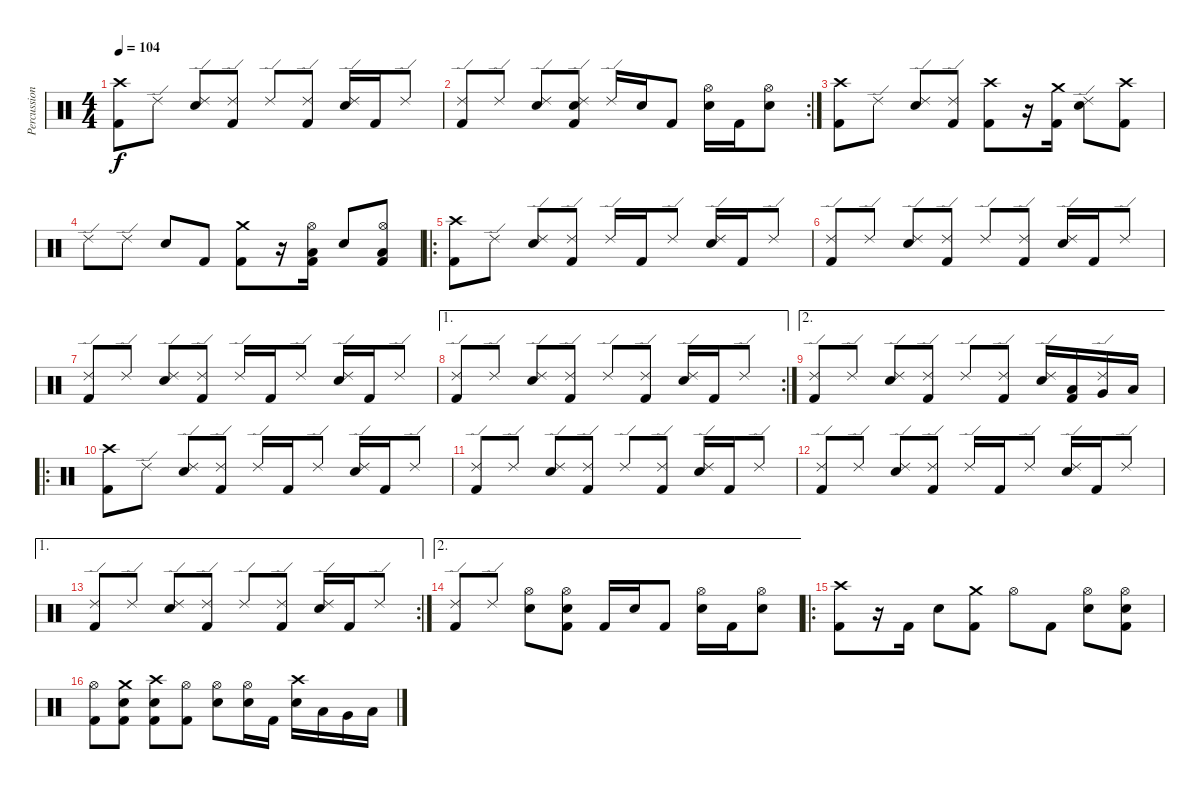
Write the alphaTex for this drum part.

\track ("Percussion" "Percussion") {instrument percussion}
\staff {score}
\articulation defaults
\ts (4 4)
\tempo 104
\clef neutral
\ks c
("Crash high (hit)" "Kick (hit) 2").8{dy f} "Ride (edge) 2".8 ("Ride (edge) 2" "Electric Snare (hit)").8 ("Ride (edge) 2" "Kick (hit) 2").8 "Ride (edge) 2".8 ("Ride (edge) 2" "Kick (hit) 2").8 ("Ride (edge) 2" "Electric Snare (hit)").16 "Kick (hit) 2".16 "Ride (edge) 2".8 |
\rc 2
("Ride (edge) 2" "Kick (hit) 2").8 "Ride (edge) 2".8 ("Ride (edge) 2" "Electric Snare (hit)").8 ("Ride (edge) 2" "Electric Snare (hit)" "Kick (hit) 2").8 "Ride (edge) 2".16 "Electric Snare (hit)".16 "Kick (hit) 2".8 ("Hi-Hat (open)" "Electric Snare (hit)").16 "Kick (hit) 2".16 ("Hi-Hat (open)" "Electric Snare (hit)").8 |
("Crash high (hit)" "Kick (hit) 2").8 "Ride (edge) 2".8 ("Ride (edge) 2" "Electric Snare (hit)").8 ("Ride (edge) 2" "Kick (hit) 2").8 ("Crash high (hit)" "Kick (hit) 2").8 r.16 ("Crash medium (hit)" "Kick (hit) 2").16 ("Ride (edge) 2" "Electric Snare (hit)").8 ("Crash high (hit)" "Kick (hit) 2").8 |
"Ride (edge) 2".8 "Ride (edge) 2".8 "Electric Snare (hit)".8 "Kick (hit) 2".8 ("Crash medium (hit)" "Kick (hit) 2").8 r.16 ("Hi-Hat (open)" "Low Tom (hit)" "Kick (hit) 2").16 "Electric Snare (hit)".8 ("Hi-Hat (open)" "Low Floor Tom (hit)" "Kick (hit) 2").8 |
\ro
("Crash high (hit)" "Kick (hit) 2").8 "Ride (edge) 2".8 ("Ride (edge) 2" "Snare (hit) 2").8 ("Ride (edge) 2" "Kick (hit) 2").8 "Ride (edge) 2".16 "Kick (hit) 2".16 "Ride (edge) 2".8 ("Ride (edge) 2" "Snare (hit) 2").16 "Kick (hit) 2".16 "Ride (edge) 2".8 |
("Ride (edge) 2" "Kick (hit) 2").8 "Ride (edge) 2".8 ("Ride (edge) 2" "Snare (hit) 2").8 ("Ride (edge) 2" "Kick (hit) 2").8 "Ride (edge) 2".8 ("Ride (edge) 2" "Kick (hit) 2").8 ("Ride (edge) 2" "Snare (hit) 2").16 "Kick (hit) 2".16 "Ride (edge) 2".8 |
("Ride (edge) 2" "Kick (hit) 2").8 "Ride (edge) 2".8 ("Ride (edge) 2" "Snare (hit) 2").8 ("Ride (edge) 2" "Kick (hit) 2").8 "Ride (edge) 2".16 "Kick (hit) 2".16 "Ride (edge) 2".8 ("Ride (edge) 2" "Snare (hit) 2").16 "Kick (hit) 2".16 "Ride (edge) 2".8 |
\ae 1
\rc 2
("Ride (edge) 2" "Kick (hit) 2").8 "Ride (edge) 2".8 ("Ride (edge) 2" "Snare (hit) 2").8 ("Ride (edge) 2" "Kick (hit) 2").8 "Ride (edge) 2".8 ("Ride (edge) 2" "Kick (hit) 2").8 ("Ride (edge) 2" "Snare (hit) 2").16 "Kick (hit) 2".16 "Ride (edge) 2".8 |
\ae 2
("Ride (edge) 2" "Kick (hit) 2").8 "Ride (edge) 2".8 ("Ride (edge) 2" "Snare (hit) 2").8 ("Ride (edge) 2" "Kick (hit) 2").8 "Ride (edge) 2".8 ("Ride (edge) 2" "Kick (hit) 2").8 ("Ride (edge) 2" "Snare (hit) 2").16 ("Low Tom (hit)" "Kick (hit) 2").16 ("Ride (edge) 2" "Very Low Tom (hit)").16 "Low Floor Tom (hit)".16 |
\ro
("Crash high (hit)" "Kick (hit) 2").8 "Ride (edge) 2".8 ("Ride (edge) 2" "Snare (hit) 2").8 ("Ride (edge) 2" "Kick (hit) 2").8 "Ride (edge) 2".16 "Kick (hit) 2".16 "Ride (edge) 2".8 ("Ride (edge) 2" "Snare (hit) 2").16 "Kick (hit) 2".16 "Ride (edge) 2".8 |
("Ride (edge) 2" "Kick (hit) 2").8 "Ride (edge) 2".8 ("Ride (edge) 2" "Snare (hit) 2").8 ("Ride (edge) 2" "Kick (hit) 2").8 "Ride (edge) 2".8 ("Ride (edge) 2" "Kick (hit) 2").8 ("Ride (edge) 2" "Snare (hit) 2").16 "Kick (hit) 2".16 "Ride (edge) 2".8 |
("Ride (edge) 2" "Kick (hit) 2").8 "Ride (edge) 2".8 ("Ride (edge) 2" "Snare (hit) 2").8 ("Ride (edge) 2" "Kick (hit) 2").8 "Ride (edge) 2".16 "Kick (hit) 2".16 "Ride (edge) 2".8 ("Ride (edge) 2" "Snare (hit) 2").16 "Kick (hit) 2".16 "Ride (edge) 2".8 |
\ae 1
\rc 2
("Ride (edge) 2" "Kick (hit) 2").8 "Ride (edge) 2".8 ("Ride (edge) 2" "Snare (hit) 2").8 ("Ride (edge) 2" "Kick (hit) 2").8 "Ride (edge) 2".8 ("Ride (edge) 2" "Kick (hit) 2").8 ("Ride (edge) 2" "Snare (hit) 2").16 "Kick (hit) 2".16 "Ride (edge) 2".8 |
\ae 2
("Ride (edge) 2" "Kick (hit) 2").8 "Ride (edge) 2".8 ("Hi-Hat (open)" "Snare (hit) 2").8 ("Hi-Hat (open)" "Snare (hit) 2" "Kick (hit) 2").8 "Kick (hit) 2".16 "Snare (hit) 2".16 "Kick (hit) 2".8 ("Hi-Hat (open)" "Snare (hit) 2").16 "Kick (hit) 2".16 ("Hi-Hat (open)" "Snare (hit) 2").8 |
\ro
("Crash high (hit)" "Kick (hit) 2").8 r.16 "Kick (hit) 2".16 "Electric Snare (hit)".8 ("Crash medium (hit)" "Kick (hit) 2").8 "Hi-Hat (open)".8 "Kick (hit) 2".8 ("Hi-Hat (open)" "Electric Snare (hit)").8 ("Hi-Hat (open)" "Electric Snare (hit)" "Kick (hit) 2").8 |
("Hi-Hat (open)" "Kick (hit) 2").8 ("Crash medium (hit)" "Electric Snare (hit)" "Kick (hit) 2").8 ("Crash high (hit)" "Electric Snare (hit)" "Kick (hit) 2").8 ("Hi-Hat (open)" "Kick (hit) 2").8 ("Hi-Hat (open)" "Electric Snare (hit)").8 ("Hi-Hat (open)" "Electric Snare (hit)").16 "Kick (hit) 2".16 ("Crash high (hit)" "Electric Snare (hit)").16 "Low Tom (hit)".16 "Very Low Tom (hit)".16 "Low Floor Tom (hit)".16
